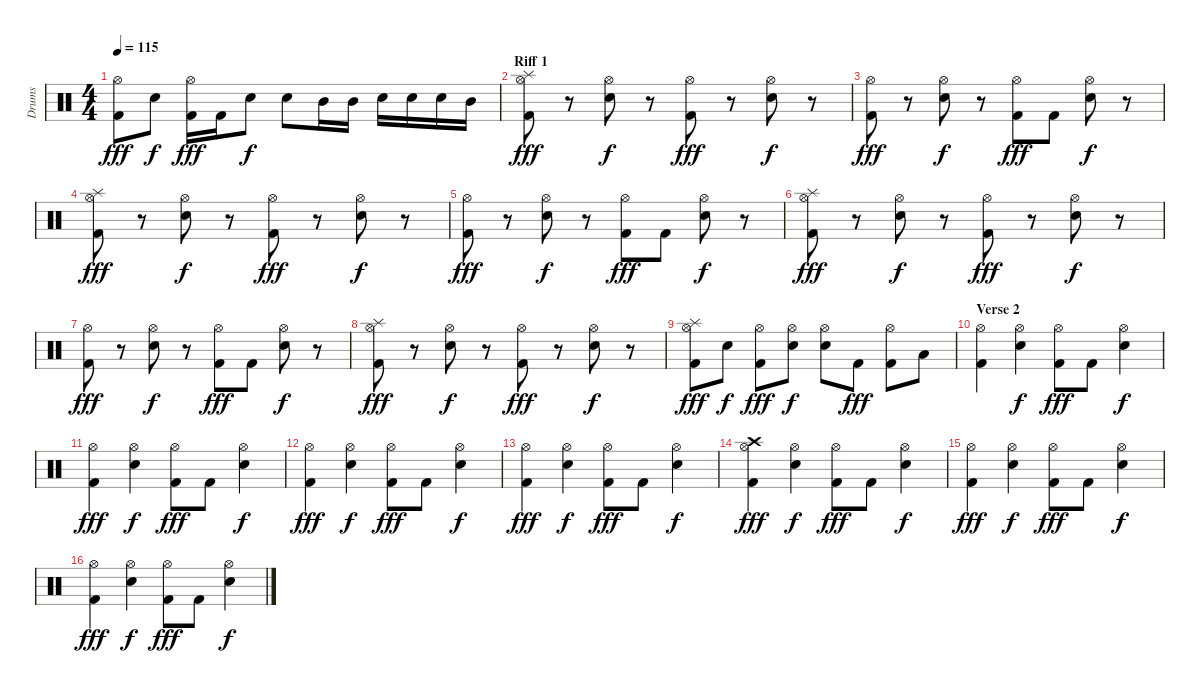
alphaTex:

\track ("Drums" "Drums") {instrument percussion}
\staff {score}
\articulation defaults
\ts (4 4)
\tempo 115
\clef neutral
\ks c
("Hi-Hat (open)" "Kick (hit) 2").8{dy fff} "Snare (hit) 2".8{dy f} ("Hi-Hat (open)" "Kick (hit) 2").16{dy fff} "Kick (hit) 2".16 "Snare (hit) 2".8{dy f} "Snare (hit) 2".8 "Mid Tom (hit)".16 "Mid Tom (hit)".16 "Snare (hit) 2".16 "Snare (hit) 2".16 "Snare (hit) 2".16 "Mid Tom (hit)".16 |
\section ("" "Riff 1")
("Hi-Hat (open)" "Splash (hit)" "Kick (hit) 2").8{dy fff} r.8 ("Hi-Hat (open)" "Snare (hit) 2").8{dy f} r.8 ("Hi-Hat (open)" "Kick (hit) 2").8{dy fff} r.8 ("Hi-Hat (open)" "Snare (hit) 2").8{dy f} r.8 |
("Hi-Hat (open)" "Kick (hit) 2").8{dy fff} r.8 ("Hi-Hat (open)" "Snare (hit) 2").8{dy f} r.8 ("Hi-Hat (open)" "Kick (hit) 2").8{dy fff} "Kick (hit) 2".8 ("Hi-Hat (open)" "Snare (hit) 2").8{dy f} r.8 |
("Hi-Hat (open)" "Splash (hit)" "Kick (hit) 2").8{dy fff} r.8 ("Hi-Hat (open)" "Snare (hit) 2").8{dy f} r.8 ("Hi-Hat (open)" "Kick (hit) 2").8{dy fff} r.8 ("Hi-Hat (open)" "Snare (hit) 2").8{dy f} r.8 |
("Hi-Hat (open)" "Kick (hit) 2").8{dy fff} r.8 ("Hi-Hat (open)" "Snare (hit) 2").8{dy f} r.8 ("Hi-Hat (open)" "Kick (hit) 2").8{dy fff} "Kick (hit) 2".8 ("Hi-Hat (open)" "Snare (hit) 2").8{dy f} r.8 |
("Hi-Hat (open)" "Splash (hit)" "Kick (hit) 2").8{dy fff} r.8 ("Hi-Hat (open)" "Snare (hit) 2").8{dy f} r.8 ("Hi-Hat (open)" "Kick (hit) 2").8{dy fff} r.8 ("Hi-Hat (open)" "Snare (hit) 2").8{dy f} r.8 |
("Hi-Hat (open)" "Kick (hit) 2").8{dy fff} r.8 ("Hi-Hat (open)" "Snare (hit) 2").8{dy f} r.8 ("Hi-Hat (open)" "Kick (hit) 2").8{dy fff} "Kick (hit) 2".8 ("Hi-Hat (open)" "Snare (hit) 2").8{dy f} r.8 |
("Hi-Hat (open)" "Splash (hit)" "Kick (hit) 2").8{dy fff} r.8 ("Hi-Hat (open)" "Snare (hit) 2").8{dy f} r.8 ("Hi-Hat (open)" "Kick (hit) 2").8{dy fff} r.8 ("Hi-Hat (open)" "Snare (hit) 2").8{dy f} r.8 |
("Hi-Hat (open)" "Splash (hit)" "Kick (hit) 2").8{dy fff} "Snare (hit) 2".8{dy f} ("Hi-Hat (open)" "Kick (hit) 2").8{dy fff} ("Hi-Hat (open)" "Snare (hit) 2").8{dy f} ("Hi-Hat (open)" "Snare (hit) 2").8 "Kick (hit) 2".8{dy fff} ("Hi-Hat (open)" "Kick (hit) 2").8 "Low Tom (hit)".8 |
\section ("" "Verse 2")
("Hi-Hat (open)" "Kick (hit) 2").4 ("Hi-Hat (open)" "Snare (hit) 2").4{dy f} ("Hi-Hat (open)" "Kick (hit) 2").8{dy fff} "Kick (hit) 2".8 ("Hi-Hat (open)" "Snare (hit) 2").4{dy f} |
("Hi-Hat (open)" "Kick (hit) 2").4{dy fff} ("Hi-Hat (open)" "Snare (hit) 2").4{dy f} ("Hi-Hat (open)" "Kick (hit) 2").8{dy fff} "Kick (hit) 2".8 ("Hi-Hat (open)" "Snare (hit) 2").4{dy f} |
("Hi-Hat (open)" "Kick (hit) 2").4{dy fff} ("Hi-Hat (open)" "Snare (hit) 2").4{dy f} ("Hi-Hat (open)" "Kick (hit) 2").8{dy fff} "Kick (hit) 2".8 ("Hi-Hat (open)" "Snare (hit) 2").4{dy f} |
("Hi-Hat (open)" "Kick (hit) 2").4{dy fff} ("Hi-Hat (open)" "Snare (hit) 2").4{dy f} ("Hi-Hat (open)" "Kick (hit) 2").8{dy fff} "Kick (hit) 2".8 ("Hi-Hat (open)" "Snare (hit) 2").4{dy f} |
("Hi-Hat (open)" "Crash high (hit)" "Kick (hit) 2").4{dy fff} ("Hi-Hat (open)" "Snare (hit) 2").4{dy f} ("Hi-Hat (open)" "Kick (hit) 2").8{dy fff} "Kick (hit) 2".8 ("Hi-Hat (open)" "Snare (hit) 2").4{dy f} |
("Hi-Hat (open)" "Kick (hit) 2").4{dy fff} ("Hi-Hat (open)" "Snare (hit) 2").4{dy f} ("Hi-Hat (open)" "Kick (hit) 2").8{dy fff} "Kick (hit) 2".8 ("Hi-Hat (open)" "Snare (hit) 2").4{dy f} |
("Hi-Hat (open)" "Kick (hit) 2").4{dy fff} ("Hi-Hat (open)" "Snare (hit) 2").4{dy f} ("Hi-Hat (open)" "Kick (hit) 2").8{dy fff} "Kick (hit) 2".8 ("Hi-Hat (open)" "Snare (hit) 2").4{dy f}
